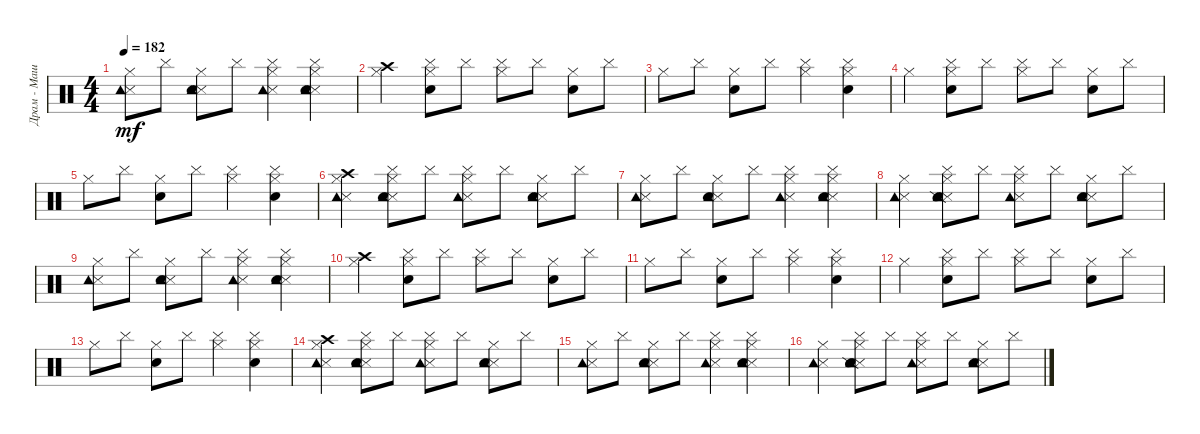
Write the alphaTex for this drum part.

\track ("Драм - Машина" "Драм - Маш") {instrument percussion}
\staff {score}
\articulation defaults
\ts (4 4)
\tempo 182
\clef neutral
\ks c
("Metronome (hit)" "Tambourine (hit)" "Hi-Hat (closed)").8{dy mf} "Cymbal (hit)".8 ("Metronome (hit)" "Metronome (bell)" "Hi-Hat (closed)" "Tambourine (hit)").8 "Cymbal (hit)".8 ("Metronome (hit)" "Cymbal (hit)" "Tambourine (hit)" "Hi-Hat (closed)").4 ("Metronome (hit)" "Metronome (bell)" "Cymbal (hit)" "Hi-Hat (closed)" "Tambourine (hit)").4 |
("Crash high (hit)" "Hi-Hat (closed)").4 ("Metronome (bell)" "Hi-Hat (closed)" "Cymbal (hit)").8 "Cymbal (hit)".8 ("Hi-Hat (closed)" "Cymbal (hit)").8 "Cymbal (hit)".8 ("Metronome (bell)" "Hi-Hat (closed)").8 "Cymbal (hit)".8 |
"Hi-Hat (closed)".8 "Cymbal (hit)".8 ("Metronome (bell)" "Hi-Hat (closed)").8 "Cymbal (hit)".8 ("Hi-Hat (closed)" "Cymbal (hit)").4 ("Metronome (bell)" "Hi-Hat (closed)" "Cymbal (hit)").4 |
"Hi-Hat (closed)".4 ("Metronome (bell)" "Hi-Hat (closed)" "Cymbal (hit)").8 "Cymbal (hit)".8 ("Hi-Hat (closed)" "Cymbal (hit)").8 "Cymbal (hit)".8 ("Metronome (bell)" "Hi-Hat (closed)").8 "Cymbal (hit)".8 |
"Hi-Hat (closed)".8 "Cymbal (hit)".8 ("Metronome (bell)" "Hi-Hat (closed)").8 "Cymbal (hit)".8 ("Hi-Hat (closed)" "Cymbal (hit)").4 ("Metronome (bell)" "Hi-Hat (closed)" "Cymbal (hit)").4 |
("Metronome (hit)" "Crash high (hit)" "Tambourine (hit)" "Hi-Hat (closed)").4 ("Metronome (hit)" "Metronome (bell)" "Cymbal (hit)" "Tambourine (hit)" "Hi-Hat (closed)").8 "Cymbal (hit)".8 ("Metronome (hit)" "Cymbal (hit)" "Hi-Hat (closed)" "Tambourine (hit)").8 "Cymbal (hit)".8 ("Metronome (hit)" "Metronome (bell)" "Tambourine (hit)" "Hi-Hat (closed)").8 "Cymbal (hit)".8 |
("Metronome (hit)" "Hi-Hat (closed)" "Tambourine (hit)").8 "Cymbal (hit)".8 ("Metronome (hit)" "Metronome (bell)" "Tambourine (hit)" "Hi-Hat (closed)").8 "Cymbal (hit)".8 ("Metronome (hit)" "Cymbal (hit)" "Hi-Hat (closed)" "Tambourine (hit)").4 ("Metronome (hit)" "Metronome (bell)" "Cymbal (hit)" "Hi-Hat (closed)" "Tambourine (hit)").4 |
("Metronome (hit)" "Hi-Hat (closed)" "Tambourine (hit)").4 ("Metronome (hit)" "Metronome (bell)" "Snare (side stick) 2" "Cymbal (hit)" "Tambourine (hit)" "Hi-Hat (closed)").8 "Cymbal (hit)".8 ("Metronome (hit)" "Cymbal (hit)" "Tambourine (hit)" "Hi-Hat (closed)").8 "Cymbal (hit)".8 ("Metronome (hit)" "Metronome (bell)" "Tambourine (hit)" "Hi-Hat (closed)").8 "Cymbal (hit)".8 |
("Metronome (hit)" "Tambourine (hit)" "Hi-Hat (closed)").8 "Cymbal (hit)".8 ("Metronome (hit)" "Metronome (bell)" "Hi-Hat (closed)" "Tambourine (hit)").8 "Cymbal (hit)".8 ("Metronome (hit)" "Cymbal (hit)" "Hi-Hat (closed)" "Tambourine (hit)").4 ("Metronome (hit)" "Metronome (bell)" "Cymbal (hit)" "Hi-Hat (closed)" "Tambourine (hit)").4 |
("Crash high (hit)" "Hi-Hat (closed)").4 ("Metronome (bell)" "Hi-Hat (closed)" "Cymbal (hit)").8 "Cymbal (hit)".8 ("Hi-Hat (closed)" "Cymbal (hit)").8 "Cymbal (hit)".8 ("Metronome (bell)" "Hi-Hat (closed)").8 "Cymbal (hit)".8 |
"Hi-Hat (closed)".8 "Cymbal (hit)".8 ("Metronome (bell)" "Hi-Hat (closed)").8 "Cymbal (hit)".8 ("Hi-Hat (closed)" "Cymbal (hit)").4 ("Metronome (bell)" "Hi-Hat (closed)" "Cymbal (hit)").4 |
"Hi-Hat (closed)".4 ("Metronome (bell)" "Hi-Hat (closed)" "Cymbal (hit)").8 "Cymbal (hit)".8 ("Hi-Hat (closed)" "Cymbal (hit)").8 "Cymbal (hit)".8 ("Metronome (bell)" "Hi-Hat (closed)").8 "Cymbal (hit)".8 |
"Hi-Hat (closed)".8 "Cymbal (hit)".8 ("Metronome (bell)" "Hi-Hat (closed)").8 "Cymbal (hit)".8 ("Hi-Hat (closed)" "Cymbal (hit)").4 ("Metronome (bell)" "Hi-Hat (closed)" "Cymbal (hit)").4 |
("Metronome (hit)" "Crash high (hit)" "Tambourine (hit)" "Hi-Hat (closed)").4 ("Metronome (hit)" "Metronome (bell)" "Tambourine (hit)" "Hi-Hat (closed)" "Cymbal (hit)").8 "Cymbal (hit)".8 ("Metronome (hit)" "Tambourine (hit)" "Hi-Hat (closed)" "Cymbal (hit)").8 "Cymbal (hit)".8 ("Metronome (hit)" "Metronome (bell)" "Hi-Hat (closed)" "Tambourine (hit)").8 "Cymbal (hit)".8 |
("Metronome (hit)" "Hi-Hat (closed)" "Tambourine (hit)").8 "Cymbal (hit)".8 ("Metronome (hit)" "Metronome (bell)" "Tambourine (hit)" "Hi-Hat (closed)").8 "Cymbal (hit)".8 ("Metronome (hit)" "Cymbal (hit)" "Hi-Hat (closed)" "Tambourine (hit)").4 ("Metronome (hit)" "Metronome (bell)" "Cymbal (hit)" "Hi-Hat (closed)" "Tambourine (hit)").4 |
("Metronome (hit)" "Hi-Hat (closed)" "Tambourine (hit)").4 ("Metronome (hit)" "Metronome (bell)" "Snare (side stick) 2" "Cymbal (hit)" "Hi-Hat (closed)" "Tambourine (hit)").8 "Cymbal (hit)".8 ("Metronome (hit)" "Cymbal (hit)" "Tambourine (hit)" "Hi-Hat (closed)").8 "Cymbal (hit)".8 ("Metronome (hit)" "Metronome (bell)" "Tambourine (hit)" "Hi-Hat (closed)").8 "Cymbal (hit)".8
